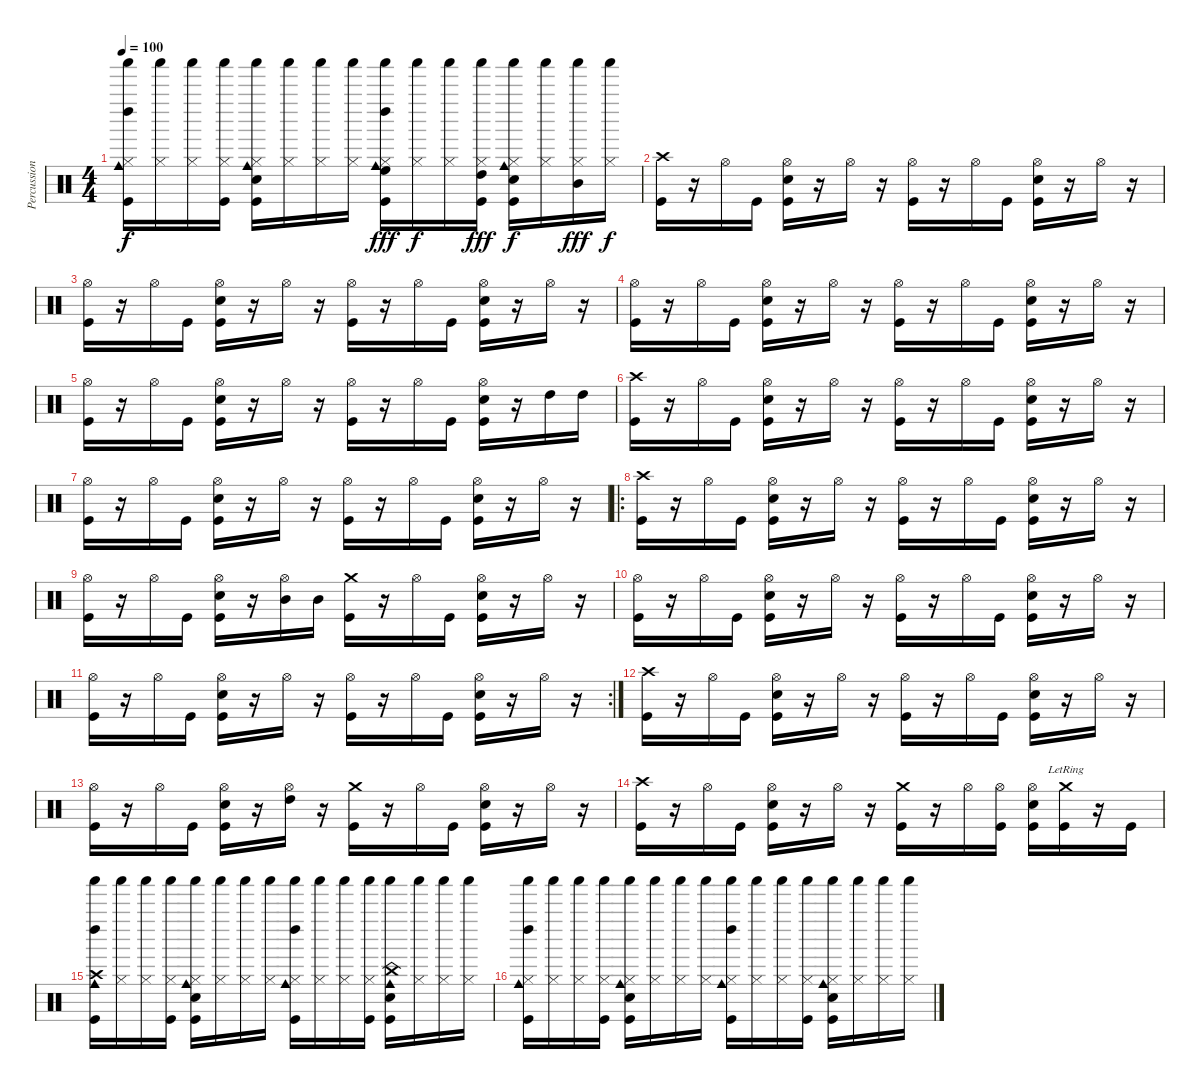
\track ("Percussions" "Percussion") {instrument percussion}
\staff {score}
\articulation defaults
\ts (4 4)
\tempo 100
\clef neutral
\ks c
("Hi-Hat (closed)" "Kick (hit)" "Left Maraca (hit)" "Cowbell medium (hit)" "Shaker (hit)").16{dy f} ("Hi-Hat (closed)" "Shaker (hit)").16 ("Hi-Hat (closed)" "Shaker (hit)").16 ("Hi-Hat (closed)" "Kick (hit)" "Shaker (hit)").16 ("Hi-Hat (closed)" "Electric Snare (hit)" "Kick (hit)" "Cowbell medium (hit)" "Shaker (hit)").16 ("Hi-Hat (closed)" "Shaker (hit)").16 ("Hi-Hat (closed)" "Shaker (hit)").16 ("Hi-Hat (closed)" "Shaker (hit)").16 ("Hi-Hat (closed)" "High Floor Tom (hit)" "Kick (hit)" "Left Maraca (hit)" "Cowbell medium (hit)" "Shaker (hit)").16{dy fff} ("Hi-Hat (closed)" "Shaker (hit)").16{dy f} ("Hi-Hat (closed)" "Shaker (hit)").16 ("Hi-Hat (closed)" "High Tom (hit)" "Kick (hit)" "Shaker (hit)").16{dy fff} ("Hi-Hat (closed)" "Electric Snare (hit)" "Kick (hit)" "Cowbell medium (hit)" "Shaker (hit)").16{dy f} ("Hi-Hat (closed)" "Shaker (hit)").16 ("Hi-Hat (closed)" "Mid Tom (hit)" "Shaker (hit)").16{dy fff} ("Hi-Hat (closed)" "Shaker (hit)").16{dy f} |
("Crash high (hit)" "Kick (hit)").16 r.16 "Hi-Hat (open)".16 "Kick (hit)".16 ("Hi-Hat (open)" "Electric Snare (hit)" "Kick (hit)").16 r.16 "Hi-Hat (open)".16 r.16 ("Hi-Hat (open)" "Kick (hit)").16 r.16 "Hi-Hat (open)".16 "Kick (hit)".16 ("Hi-Hat (open)" "Electric Snare (hit)" "Kick (hit)").16 r.16 "Hi-Hat (open)".16 r.16 |
("Hi-Hat (open)" "Kick (hit)").16 r.16 "Hi-Hat (open)".16 "Kick (hit)".16 ("Hi-Hat (open)" "Electric Snare (hit)" "Kick (hit)").16 r.16 "Hi-Hat (open)".16 r.16 ("Hi-Hat (open)" "Kick (hit)").16 r.16 "Hi-Hat (open)".16 "Kick (hit)".16 ("Hi-Hat (open)" "Electric Snare (hit)" "Kick (hit)").16 r.16 "Hi-Hat (open)".16 r.16 |
("Hi-Hat (open)" "Kick (hit)").16 r.16 "Hi-Hat (open)".16 "Kick (hit)".16 ("Hi-Hat (open)" "Electric Snare (hit)" "Kick (hit)").16 r.16 "Hi-Hat (open)".16 r.16 ("Hi-Hat (open)" "Kick (hit)").16 r.16 "Hi-Hat (open)".16 "Kick (hit)".16 ("Hi-Hat (open)" "Electric Snare (hit)" "Kick (hit)").16 r.16 "Hi-Hat (open)".16 r.16 |
("Hi-Hat (open)" "Kick (hit)").16 r.16 "Hi-Hat (open)".16 "Kick (hit)".16 ("Hi-Hat (open)" "Electric Snare (hit)" "Kick (hit)").16 r.16 "Hi-Hat (open)".16 r.16 ("Hi-Hat (open)" "Kick (hit)").16 r.16 "Hi-Hat (open)".16 "Kick (hit)".16 ("Hi-Hat (open)" "Electric Snare (hit)" "Kick (hit)").16 r.16 "High Tom (hit)".16 "High Tom (hit)".16 |
("Crash high (hit)" "Kick (hit)").16 r.16 "Hi-Hat (open)".16 "Kick (hit)".16 ("Hi-Hat (open)" "Electric Snare (hit)" "Kick (hit)").16 r.16 "Hi-Hat (open)".16 r.16 ("Hi-Hat (open)" "Kick (hit)").16 r.16 "Hi-Hat (open)".16 "Kick (hit)".16 ("Hi-Hat (open)" "Electric Snare (hit)" "Kick (hit)").16 r.16 "Hi-Hat (open)".16 r.16 |
("Hi-Hat (open)" "Kick (hit)").16 r.16 "Hi-Hat (open)".16 "Kick (hit)".16 ("Hi-Hat (open)" "Electric Snare (hit)" "Kick (hit)").16 r.16 "Hi-Hat (open)".16 r.16 ("Hi-Hat (open)" "Kick (hit)").16 r.16 "Hi-Hat (open)".16 "Kick (hit)".16 ("Hi-Hat (open)" "Electric Snare (hit)" "Kick (hit)").16 r.16 "Hi-Hat (open)".16 r.16 |
\ro
("Crash high (hit)" "Kick (hit)").16 r.16 "Hi-Hat (open)".16 "Kick (hit)".16 ("Hi-Hat (open)" "Electric Snare (hit)" "Kick (hit)").16 r.16 "Hi-Hat (open)".16 r.16 ("Hi-Hat (open)" "Kick (hit)").16 r.16 "Hi-Hat (open)".16 "Kick (hit)".16 ("Hi-Hat (open)" "Electric Snare (hit)" "Kick (hit)").16 r.16 "Hi-Hat (open)".16 r.16 |
("Hi-Hat (open)" "Kick (hit)").16 r.16 "Hi-Hat (open)".16 "Kick (hit)".16 ("Hi-Hat (open)" "Electric Snare (hit)" "Kick (hit)").16 r.16 ("Hi-Hat (open)" "Mid Tom (hit)").16 "Mid Tom (hit)".16 ("Crash medium (hit)" "Kick (hit)").16 r.16 "Hi-Hat (open)".16 "Kick (hit)".16 ("Hi-Hat (open)" "Electric Snare (hit)" "Kick (hit)").16 r.16 "Hi-Hat (open)".16 r.16 |
("Hi-Hat (open)" "Kick (hit)").16 r.16 "Hi-Hat (open)".16 "Kick (hit)".16 ("Hi-Hat (open)" "Electric Snare (hit)" "Kick (hit)").16 r.16 "Hi-Hat (open)".16 r.16 ("Hi-Hat (open)" "Kick (hit)").16 r.16 "Hi-Hat (open)".16 "Kick (hit)".16 ("Hi-Hat (open)" "Electric Snare (hit)" "Kick (hit)").16 r.16 "Hi-Hat (open)".16 r.16 |
\rc 2
("Hi-Hat (open)" "Kick (hit)").16 r.16 "Hi-Hat (open)".16 "Kick (hit)".16 ("Hi-Hat (open)" "Electric Snare (hit)" "Kick (hit)").16 r.16 "Hi-Hat (open)".16 r.16 ("Hi-Hat (open)" "Kick (hit)").16 r.16 "Hi-Hat (open)".16 "Kick (hit)".16 ("Hi-Hat (open)" "Electric Snare (hit)" "Kick (hit)").16 r.16 "Hi-Hat (open)".16 r.16 |
("Crash high (hit)" "Kick (hit)").16 r.16 "Hi-Hat (open)".16 "Kick (hit)".16 ("Hi-Hat (open)" "Electric Snare (hit)" "Kick (hit)").16 r.16 "Hi-Hat (open)".16 r.16 ("Hi-Hat (open)" "Kick (hit)").16 r.16 "Hi-Hat (open)".16 "Kick (hit)".16 ("Hi-Hat (open)" "Electric Snare (hit)" "Kick (hit)").16 r.16 "Hi-Hat (open)".16 r.16 |
("Hi-Hat (open)" "Kick (hit)").16 r.16 "Hi-Hat (open)".16 "Kick (hit)".16 ("Hi-Hat (open)" "Electric Snare (hit)" "Kick (hit)").16 r.16 ("Hi-Hat (open)" "High Tom (hit)").16 r.16 ("Crash medium (hit)" "Kick (hit)").16 r.16 "Hi-Hat (open)".16 "Kick (hit)".16 ("Hi-Hat (open)" "Electric Snare (hit)" "Kick (hit)").16 r.16 "Hi-Hat (open)".16 r.16 |
("Crash high (hit)" "Kick (hit)").16 r.16 "Hi-Hat (open)".16 "Kick (hit)".16 ("Hi-Hat (open)" "Electric Snare (hit)" "Kick (hit)").16 r.16 "Hi-Hat (open)".16 r.16 ("Crash medium (hit)" "Kick (hit)").16 r.16 "Hi-Hat (open)".16 ("Hi-Hat (open)" "Kick (hit)").16 ("Hi-Hat (open)" "Electric Snare (hit)" "Kick (hit)").16 ("Crash medium (hit)"{lr} "Kick (hit)").16 r.16 "Kick (hit)".16 |
("Crash high (hit)" "Kick (hit)" "Left Maraca (hit)" "Cowbell medium (hit)" "Shaker (hit)").16 ("Hi-Hat (closed)" "Shaker (hit)").16 ("Hi-Hat (closed)" "Shaker (hit)").16 ("Hi-Hat (closed)" "Kick (hit)" "Shaker (hit)").16 ("Hi-Hat (closed)" "Electric Snare (hit)" "Kick (hit)" "Cowbell medium (hit)" "Shaker (hit)").16 ("Hi-Hat (closed)" "Shaker (hit)").16 ("Hi-Hat (closed)" "Shaker (hit)").16 ("Hi-Hat (closed)" "Shaker (hit)").16 ("Hi-Hat (closed)" "Kick (hit)" "Left Maraca (hit)" "Cowbell medium (hit)" "Shaker (hit)").16 ("Hi-Hat (closed)" "Shaker (hit)").16 ("Hi-Hat (closed)" "Shaker (hit)").16 ("Hi-Hat (closed)" "Kick (hit)" "Shaker (hit)").16 ("China (hit)" "Electric Snare (hit)" "Kick (hit)" "Cowbell medium (hit)" "Shaker (hit)").16 ("Hi-Hat (closed)" "Shaker (hit)").16 ("Hi-Hat (closed)" "Shaker (hit)").16 ("Hi-Hat (closed)" "Shaker (hit)").16 |
("Hi-Hat (closed)" "Kick (hit)" "Left Maraca (hit)" "Cowbell medium (hit)" "Shaker (hit)").16 ("Hi-Hat (closed)" "Shaker (hit)").16 ("Hi-Hat (closed)" "Shaker (hit)").16 ("Hi-Hat (closed)" "Kick (hit)" "Shaker (hit)").16 ("Hi-Hat (closed)" "Electric Snare (hit)" "Kick (hit)" "Cowbell medium (hit)" "Shaker (hit)").16 ("Hi-Hat (closed)" "Shaker (hit)").16 ("Hi-Hat (closed)" "Shaker (hit)").16 ("Hi-Hat (closed)" "Shaker (hit)").16 ("Hi-Hat (closed)" "Kick (hit)" "Left Maraca (hit)" "Cowbell medium (hit)" "Shaker (hit)").16 ("Hi-Hat (closed)" "Shaker (hit)").16 ("Hi-Hat (closed)" "Shaker (hit)").16 ("Hi-Hat (closed)" "Kick (hit)" "Shaker (hit)").16 ("Hi-Hat (closed)" "Electric Snare (hit)" "Kick (hit)" "Cowbell medium (hit)" "Shaker (hit)").16 ("Hi-Hat (closed)" "Shaker (hit)").16 ("Hi-Hat (closed)" "Shaker (hit)").16 ("Hi-Hat (closed)" "Shaker (hit)").16
